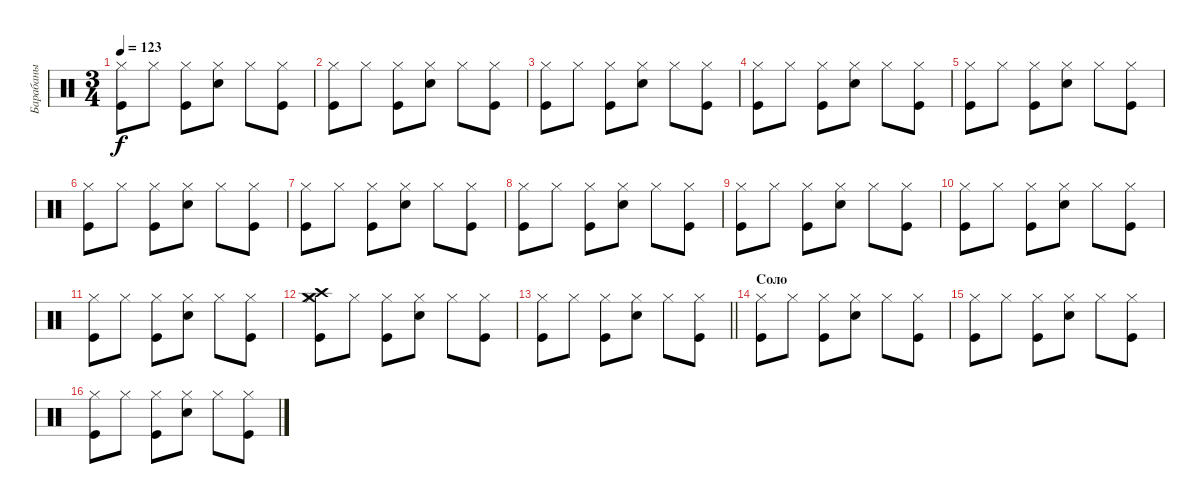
\track ("Барабаны" "Барабаны") {instrument percussion}
\staff {score}
\articulation defaults
\ts (3 4)
\tempo 123
\clef neutral
\ks c
("Kick (hit)" "Hi-Hat (closed)").8{dy f} "Hi-Hat (closed)".8 ("Kick (hit)" "Hi-Hat (closed)").8 ("Snare (hit) 2" "Hi-Hat (closed)").8 "Hi-Hat (closed)".8 ("Kick (hit)" "Hi-Hat (closed)").8 |
("Kick (hit)" "Hi-Hat (closed)").8 "Hi-Hat (closed)".8 ("Kick (hit)" "Hi-Hat (closed)").8 ("Snare (hit) 2" "Hi-Hat (closed)").8 "Hi-Hat (closed)".8 ("Kick (hit)" "Hi-Hat (closed)").8 |
("Kick (hit)" "Hi-Hat (closed)").8 "Hi-Hat (closed)".8 ("Kick (hit)" "Hi-Hat (closed)").8 ("Snare (hit) 2" "Hi-Hat (closed)").8 "Hi-Hat (closed)".8 ("Kick (hit)" "Hi-Hat (closed)").8 |
("Kick (hit)" "Hi-Hat (closed)").8 "Hi-Hat (closed)".8 ("Kick (hit)" "Hi-Hat (closed)").8 ("Snare (hit) 2" "Hi-Hat (closed)").8 "Hi-Hat (closed)".8 ("Kick (hit)" "Hi-Hat (closed)").8 |
("Kick (hit)" "Hi-Hat (closed)").8 "Hi-Hat (closed)".8 ("Kick (hit)" "Hi-Hat (closed)").8 ("Snare (hit) 2" "Hi-Hat (closed)").8 "Hi-Hat (closed)".8 ("Kick (hit)" "Hi-Hat (closed)").8 |
("Kick (hit)" "Hi-Hat (closed)").8 "Hi-Hat (closed)".8 ("Kick (hit)" "Hi-Hat (closed)").8 ("Snare (hit) 2" "Hi-Hat (closed)").8 "Hi-Hat (closed)".8 ("Kick (hit)" "Hi-Hat (closed)").8 |
("Kick (hit)" "Hi-Hat (closed)").8 "Hi-Hat (closed)".8 ("Kick (hit)" "Hi-Hat (closed)").8 ("Snare (hit) 2" "Hi-Hat (closed)").8 "Hi-Hat (closed)".8 ("Kick (hit)" "Hi-Hat (closed)").8 |
("Kick (hit)" "Hi-Hat (closed)").8 "Hi-Hat (closed)".8 ("Kick (hit)" "Hi-Hat (closed)").8 ("Snare (hit) 2" "Hi-Hat (closed)").8 "Hi-Hat (closed)".8 ("Kick (hit)" "Hi-Hat (closed)").8 |
("Kick (hit)" "Hi-Hat (closed)").8 "Hi-Hat (closed)".8 ("Kick (hit)" "Hi-Hat (closed)").8 ("Snare (hit) 2" "Hi-Hat (closed)").8 "Hi-Hat (closed)".8 ("Kick (hit)" "Hi-Hat (closed)").8 |
("Kick (hit)" "Hi-Hat (closed)").8 "Hi-Hat (closed)".8 ("Kick (hit)" "Hi-Hat (closed)").8 ("Snare (hit) 2" "Hi-Hat (closed)").8 "Hi-Hat (closed)".8 ("Kick (hit)" "Hi-Hat (closed)").8 |
("Kick (hit)" "Hi-Hat (closed)").8 "Hi-Hat (closed)".8 ("Kick (hit)" "Hi-Hat (closed)").8 ("Snare (hit) 2" "Hi-Hat (closed)").8 "Hi-Hat (closed)".8 ("Kick (hit)" "Hi-Hat (closed)").8 |
("Kick (hit)" "Hi-Hat (closed)" "Crash high (hit)" "Crash medium (hit)").8 "Hi-Hat (closed)".8 ("Kick (hit)" "Hi-Hat (closed)").8 ("Snare (hit) 2" "Hi-Hat (closed)").8 "Hi-Hat (closed)".8 ("Kick (hit)" "Hi-Hat (closed)").8 |
\barLineRight lightlight
("Kick (hit)" "Hi-Hat (closed)").8 "Hi-Hat (closed)".8 ("Kick (hit)" "Hi-Hat (closed)").8 ("Snare (hit) 2" "Hi-Hat (closed)").8 "Hi-Hat (closed)".8 ("Kick (hit)" "Hi-Hat (closed)").8 |
\section ("" "Соло")
("Kick (hit)" "Hi-Hat (closed)").8 "Hi-Hat (closed)".8 ("Kick (hit)" "Hi-Hat (closed)").8 ("Snare (hit) 2" "Hi-Hat (closed)").8 "Hi-Hat (closed)".8 ("Kick (hit)" "Hi-Hat (closed)").8 |
("Kick (hit)" "Hi-Hat (closed)").8 "Hi-Hat (closed)".8 ("Kick (hit)" "Hi-Hat (closed)").8 ("Snare (hit) 2" "Hi-Hat (closed)").8 "Hi-Hat (closed)".8 ("Kick (hit)" "Hi-Hat (closed)").8 |
("Kick (hit)" "Hi-Hat (closed)").8 "Hi-Hat (closed)".8 ("Kick (hit)" "Hi-Hat (closed)").8 ("Snare (hit) 2" "Hi-Hat (closed)").8 "Hi-Hat (closed)".8 ("Kick (hit)" "Hi-Hat (closed)").8
